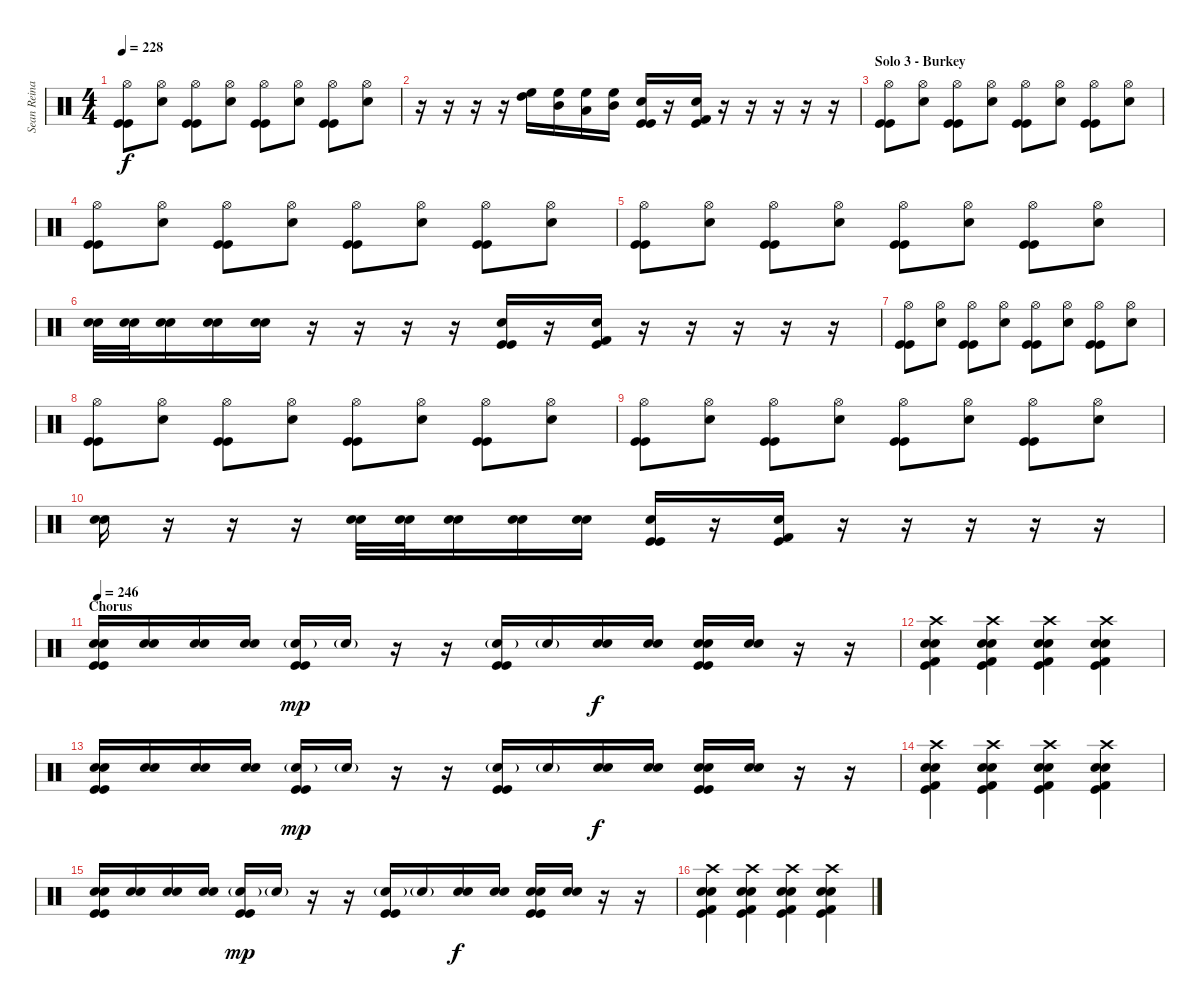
\track ("Sean Reinart" "Sean Reina") {instrument percussion}
\staff {score}
\articulation defaults
\ts (4 4)
\tempo 228
\clef neutral
\ks c
("Hi-Hat (open)" "Kick (hit)" "Kick (hit)").8{dy f} ("Hi-Hat (open)" "Snare (hit) 2").8 ("Hi-Hat (open)" "Kick (hit)" "Kick (hit)").8 ("Hi-Hat (open)" "Snare (hit) 2").8 ("Hi-Hat (open)" "Kick (hit)" "Kick (hit)").8 ("Hi-Hat (open)" "Snare (hit) 2").8 ("Hi-Hat (open)" "Kick (hit)" "Kick (hit)").8 ("Hi-Hat (open)" "Snare (hit) 2").8 |
r.16 r.16 r.16 r.16 ("High Floor Tom (hit)" "High Tom (hit)").16 ("High Floor Tom (hit)" "Mid Tom (hit)").16 ("High Floor Tom (hit)" "Low Tom (hit)").16 ("High Floor Tom (hit)" "Mid Tom (hit)").16 ("Snare (hit) 2" "Kick (hit)" "Kick (hit)").16 r.16 ("Snare (hit) 2" "Kick (hit)" "Kick (hit) 2").16 r.16 r.16 r.16 r.16 r.16 |
\section ("" "Solo 3 - Burkey")
("Hi-Hat (open)" "Kick (hit)" "Kick (hit)").8 ("Hi-Hat (open)" "Snare (hit) 2").8 ("Hi-Hat (open)" "Kick (hit)" "Kick (hit)").8 ("Hi-Hat (open)" "Snare (hit) 2").8 ("Hi-Hat (open)" "Kick (hit)" "Kick (hit)").8 ("Hi-Hat (open)" "Snare (hit) 2").8 ("Hi-Hat (open)" "Kick (hit)" "Kick (hit)").8 ("Hi-Hat (open)" "Snare (hit) 2").8 |
("Hi-Hat (open)" "Kick (hit)" "Kick (hit)").8 ("Hi-Hat (open)" "Snare (hit) 2").8 ("Hi-Hat (open)" "Kick (hit)" "Kick (hit)").8 ("Hi-Hat (open)" "Snare (hit) 2").8 ("Hi-Hat (open)" "Kick (hit)" "Kick (hit)").8 ("Hi-Hat (open)" "Snare (hit) 2").8 ("Hi-Hat (open)" "Kick (hit)" "Kick (hit)").8 ("Hi-Hat (open)" "Snare (hit) 2").8 |
("Hi-Hat (open)" "Kick (hit)" "Kick (hit)").8 ("Hi-Hat (open)" "Snare (hit) 2").8 ("Hi-Hat (open)" "Kick (hit)" "Kick (hit)").8 ("Hi-Hat (open)" "Snare (hit) 2").8 ("Hi-Hat (open)" "Kick (hit)" "Kick (hit)").8 ("Hi-Hat (open)" "Snare (hit) 2").8 ("Hi-Hat (open)" "Kick (hit)" "Kick (hit)").8 ("Hi-Hat (open)" "Snare (hit) 2").8 |
("Snare (hit) 2" "Electric Snare (hit)").32 ("Snare (hit) 2" "Electric Snare (hit)").32 ("Snare (hit) 2" "Electric Snare (hit)").16 ("Snare (hit) 2" "Electric Snare (hit)").16 ("Snare (hit) 2" "Electric Snare (hit)").16 r.16 r.16 r.16 r.16 ("Snare (hit) 2" "Kick (hit)" "Kick (hit)").16 r.16 ("Snare (hit) 2" "Kick (hit)" "Kick (hit) 2").16 r.16 r.16 r.16 r.16 r.16 |
("Hi-Hat (open)" "Kick (hit)" "Kick (hit)").8 ("Hi-Hat (open)" "Snare (hit) 2").8 ("Hi-Hat (open)" "Kick (hit)" "Kick (hit)").8 ("Hi-Hat (open)" "Snare (hit) 2").8 ("Hi-Hat (open)" "Kick (hit)" "Kick (hit)").8 ("Hi-Hat (open)" "Snare (hit) 2").8 ("Hi-Hat (open)" "Kick (hit)" "Kick (hit)").8 ("Hi-Hat (open)" "Snare (hit) 2").8 |
("Hi-Hat (open)" "Kick (hit)" "Kick (hit)").8 ("Hi-Hat (open)" "Snare (hit) 2").8 ("Hi-Hat (open)" "Kick (hit)" "Kick (hit)").8 ("Hi-Hat (open)" "Snare (hit) 2").8 ("Hi-Hat (open)" "Kick (hit)" "Kick (hit)").8 ("Hi-Hat (open)" "Snare (hit) 2").8 ("Hi-Hat (open)" "Kick (hit)" "Kick (hit)").8 ("Hi-Hat (open)" "Snare (hit) 2").8 |
("Hi-Hat (open)" "Kick (hit)" "Kick (hit)").8 ("Hi-Hat (open)" "Snare (hit) 2").8 ("Hi-Hat (open)" "Kick (hit)" "Kick (hit)").8 ("Hi-Hat (open)" "Snare (hit) 2").8 ("Hi-Hat (open)" "Kick (hit)" "Kick (hit)").8 ("Hi-Hat (open)" "Snare (hit) 2").8 ("Hi-Hat (open)" "Kick (hit)" "Kick (hit)").8 ("Hi-Hat (open)" "Snare (hit) 2").8 |
("Snare (hit) 2" "Electric Snare (hit)").16 r.16 r.16 r.16 ("Snare (hit) 2" "Electric Snare (hit)").32 ("Snare (hit) 2" "Electric Snare (hit)").32 ("Snare (hit) 2" "Electric Snare (hit)").16 ("Snare (hit) 2" "Electric Snare (hit)").16 ("Snare (hit) 2" "Electric Snare (hit)").16 ("Snare (hit) 2" "Kick (hit)" "Kick (hit)").16 r.16 ("Snare (hit) 2" "Kick (hit)" "Kick (hit) 2").16 r.16 r.16 r.16 r.16 r.16 |
\section ("" "Chorus")
\tempo 246
("Snare (hit) 2" "Electric Snare (hit)" "Kick (hit)" "Kick (hit)").16 ("Snare (hit) 2" "Electric Snare (hit)").16 ("Snare (hit) 2" "Electric Snare (hit)").16 ("Snare (hit) 2" "Electric Snare (hit)").16 ("Snare (hit) 2"{g} "Kick (hit)" "Kick (hit)").16{dy mp} "Snare (hit) 2"{g}.16 r.16 r.16 ("Snare (hit) 2"{g} "Kick (hit)" "Kick (hit)").16 "Snare (hit) 2"{g}.16 ("Snare (hit) 2" "Electric Snare (hit)").16{dy f} ("Snare (hit) 2" "Electric Snare (hit)").16 ("Snare (hit) 2" "Electric Snare (hit)" "Kick (hit)" "Kick (hit)").16 ("Snare (hit) 2" "Electric Snare (hit)").16 r.16 r.16 |
("Crash high (hit)" "Snare (hit) 2" "Electric Snare (hit)" "Kick (hit)" "Kick (hit) 2").4 ("Crash high (hit)" "Snare (hit) 2" "Electric Snare (hit)" "Kick (hit)" "Kick (hit) 2").4 ("Crash high (hit)" "Snare (hit) 2" "Electric Snare (hit)" "Kick (hit)" "Kick (hit) 2").4 ("Crash high (hit)" "Snare (hit) 2" "Electric Snare (hit)" "Kick (hit)" "Kick (hit) 2").4 |
("Snare (hit) 2" "Electric Snare (hit)" "Kick (hit)" "Kick (hit)").16 ("Snare (hit) 2" "Electric Snare (hit)").16 ("Snare (hit) 2" "Electric Snare (hit)").16 ("Snare (hit) 2" "Electric Snare (hit)").16 ("Snare (hit) 2"{g} "Kick (hit)" "Kick (hit)").16{dy mp} "Snare (hit) 2"{g}.16 r.16 r.16 ("Snare (hit) 2"{g} "Kick (hit)" "Kick (hit)").16 "Snare (hit) 2"{g}.16 ("Snare (hit) 2" "Electric Snare (hit)").16{dy f} ("Snare (hit) 2" "Electric Snare (hit)").16 ("Snare (hit) 2" "Electric Snare (hit)" "Kick (hit)" "Kick (hit)").16 ("Snare (hit) 2" "Electric Snare (hit)").16 r.16 r.16 |
("Crash high (hit)" "Snare (hit) 2" "Electric Snare (hit)" "Kick (hit)" "Kick (hit) 2").4 ("Crash high (hit)" "Snare (hit) 2" "Electric Snare (hit)" "Kick (hit)" "Kick (hit) 2").4 ("Crash high (hit)" "Snare (hit) 2" "Electric Snare (hit)" "Kick (hit)" "Kick (hit) 2").4 ("Crash high (hit)" "Snare (hit) 2" "Electric Snare (hit)" "Kick (hit)" "Kick (hit) 2").4 |
("Snare (hit) 2" "Electric Snare (hit)" "Kick (hit)" "Kick (hit)").16 ("Snare (hit) 2" "Electric Snare (hit)").16 ("Snare (hit) 2" "Electric Snare (hit)").16 ("Snare (hit) 2" "Electric Snare (hit)").16 ("Snare (hit) 2"{g} "Kick (hit)" "Kick (hit)").16{dy mp} "Snare (hit) 2"{g}.16 r.16 r.16 ("Snare (hit) 2"{g} "Kick (hit)" "Kick (hit)").16 "Snare (hit) 2"{g}.16 ("Snare (hit) 2" "Electric Snare (hit)").16{dy f} ("Snare (hit) 2" "Electric Snare (hit)").16 ("Snare (hit) 2" "Electric Snare (hit)" "Kick (hit)" "Kick (hit)").16 ("Snare (hit) 2" "Electric Snare (hit)").16 r.16 r.16 |
("Crash high (hit)" "Snare (hit) 2" "Electric Snare (hit)" "Kick (hit)" "Kick (hit) 2").4 ("Crash high (hit)" "Snare (hit) 2" "Electric Snare (hit)" "Kick (hit)" "Kick (hit) 2").4 ("Crash high (hit)" "Snare (hit) 2" "Electric Snare (hit)" "Kick (hit)" "Kick (hit) 2").4 ("Crash high (hit)" "Snare (hit) 2" "Electric Snare (hit)" "Kick (hit)" "Kick (hit) 2").4
